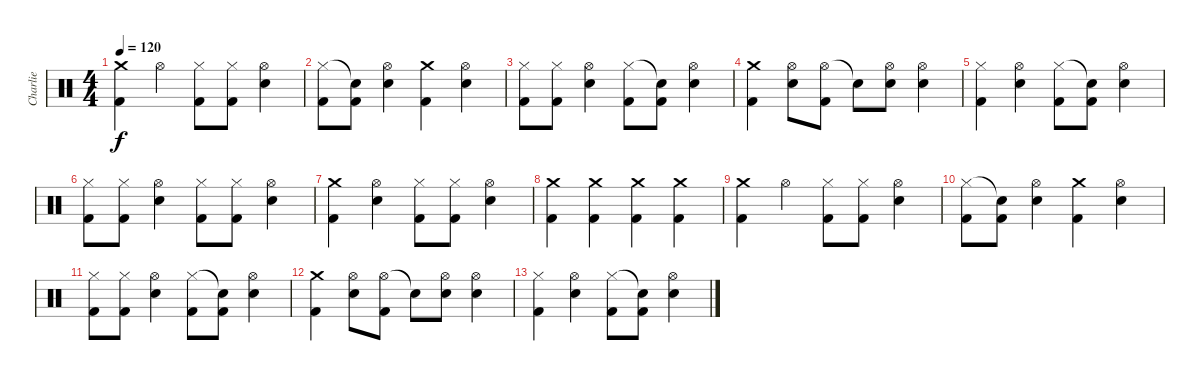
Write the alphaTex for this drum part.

\track ("Charlie" "Charlie") {instrument percussion}
\staff {score}
\articulation defaults
\ts (4 4)
\tempo 120
\clef neutral
\ks c
("Crash medium (hit)" "Kick (hit) 2").4{dy f} "Hi-Hat (open)".4 ("Hi-Hat (closed)" "Kick (hit) 2").8 ("Hi-Hat (closed)" "Kick (hit) 2").8 ("Hi-Hat (open)" "Snare (hit) 2").4 |
("Hi-Hat (closed)" "Kick (hit) 2").8 ("Snare (hit)"{t} "Kick (hit) 2").8 ("Hi-Hat (open)" "Snare (hit) 2").4 ("Crash medium (hit)" "Kick (hit) 2").4 ("Hi-Hat (open)" "Snare (hit) 2").4 |
("Hi-Hat (closed)" "Kick (hit) 2").8 ("Hi-Hat (closed)" "Kick (hit) 2").8 ("Hi-Hat (open)" "Snare (hit) 2").4 ("Hi-Hat (closed)" "Kick (hit) 2").8 ("Snare (hit)"{t} "Kick (hit) 2").8 ("Hi-Hat (open)" "Snare (hit) 2").4 |
("Crash medium (hit)" "Kick (hit) 2").4 ("Hi-Hat (open)" "Snare (hit) 2").8 ("Hi-Hat (open)" "Kick (hit) 2").8 "Snare (hit)"{t}.8 ("Hi-Hat (open)" "Snare (hit) 2").8 ("Hi-Hat (open)" "Snare (hit) 2").4 |
("Hi-Hat (closed)" "Kick (hit) 2").4 ("Hi-Hat (open)" "Snare (hit) 2").4 ("Hi-Hat (closed)" "Kick (hit) 2").8 ("Snare (hit)"{t} "Kick (hit) 2").8 ("Hi-Hat (open)" "Snare (hit) 2").4 |
("Hi-Hat (closed)" "Kick (hit) 2").8 ("Hi-Hat (closed)" "Kick (hit) 2").8 ("Hi-Hat (open)" "Snare (hit) 2").4 ("Hi-Hat (closed)" "Kick (hit) 2").8 ("Hi-Hat (closed)" "Kick (hit) 2").8 ("Hi-Hat (open)" "Snare (hit) 2").4 |
("Crash medium (hit)" "Kick (hit) 2").4 ("Hi-Hat (open)" "Snare (hit) 2").4 ("Hi-Hat (closed)" "Kick (hit) 2").8 ("Hi-Hat (closed)" "Kick (hit) 2").8 ("Hi-Hat (open)" "Snare (hit) 2").4 |
("Crash medium (hit)" "Kick (hit) 2").4 ("Crash medium (hit)" "Kick (hit) 2").4 ("Crash medium (hit)" "Kick (hit) 2").4 ("Crash medium (hit)" "Kick (hit) 2").4 |
("Crash medium (hit)" "Kick (hit) 2").4 "Hi-Hat (open)".4 ("Hi-Hat (closed)" "Kick (hit) 2").8 ("Hi-Hat (closed)" "Kick (hit) 2").8 ("Hi-Hat (open)" "Snare (hit) 2").4 |
("Hi-Hat (closed)" "Kick (hit) 2").8 ("Snare (hit)"{t} "Kick (hit) 2").8 ("Hi-Hat (open)" "Snare (hit) 2").4 ("Crash medium (hit)" "Kick (hit) 2").4 ("Hi-Hat (open)" "Snare (hit) 2").4 |
("Hi-Hat (closed)" "Kick (hit) 2").8 ("Hi-Hat (closed)" "Kick (hit) 2").8 ("Hi-Hat (open)" "Snare (hit) 2").4 ("Hi-Hat (closed)" "Kick (hit) 2").8 ("Snare (hit)"{t} "Kick (hit) 2").8 ("Hi-Hat (open)" "Snare (hit) 2").4 |
("Crash medium (hit)" "Kick (hit) 2").4 ("Hi-Hat (open)" "Snare (hit) 2").8 ("Hi-Hat (open)" "Kick (hit) 2").8 "Snare (hit)"{t}.8 ("Hi-Hat (open)" "Snare (hit) 2").8 ("Hi-Hat (open)" "Snare (hit) 2").4 |
("Hi-Hat (closed)" "Kick (hit) 2").4 ("Hi-Hat (open)" "Snare (hit) 2").4 ("Hi-Hat (closed)" "Kick (hit) 2").8 ("Snare (hit)"{t} "Kick (hit) 2").8 ("Hi-Hat (open)" "Snare (hit) 2").4
